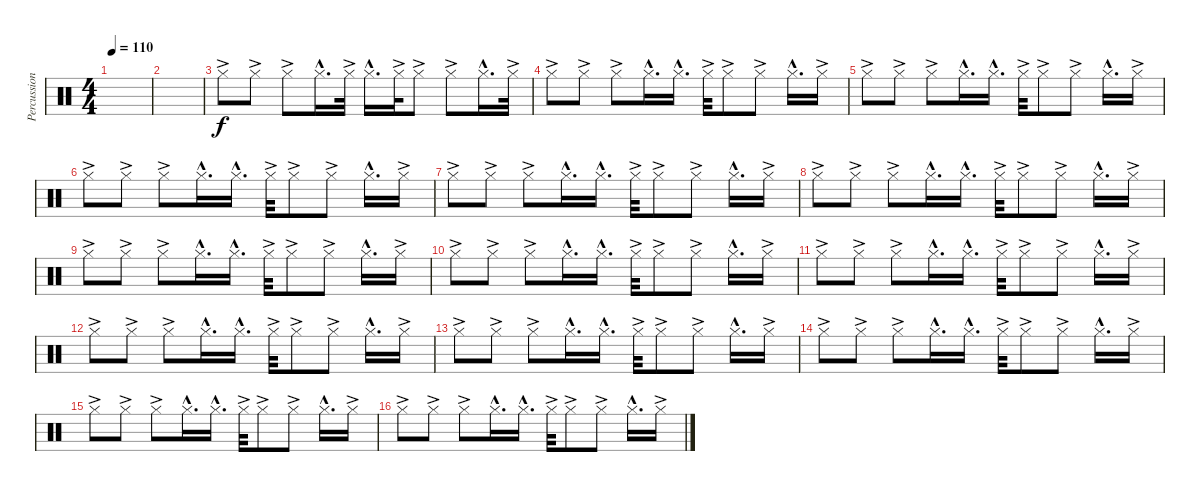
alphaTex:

\track ("Percussion" "Percussion") {instrument percussion}
\staff {score}
\articulation defaults
\ts (4 4)
\tempo 110
\clef neutral
\ks c
|
|
"Hi-Hat (closed)"{ac}.8 "Hi-Hat (closed)"{ac}.8 "Hi-Hat (closed)"{ac}.8 "Hi-Hat (closed)"{hac}.16{d} "Hi-Hat (closed)"{ac}.32 "Hi-Hat (closed)"{hac}.16{d} "Hi-Hat (closed)"{ac}.32 "Hi-Hat (closed)"{ac}.8 "Hi-Hat (closed)"{ac}.8 "Hi-Hat (closed)"{hac}.16{d} "Hi-Hat (closed)"{ac}.32 |
"Hi-Hat (closed)"{ac}.8 "Hi-Hat (closed)"{ac}.8 "Hi-Hat (closed)"{ac}.8 "Hi-Hat (closed)"{hac}.16{d} "Hi-Hat (closed)"{hac}.16{d} "Hi-Hat (closed)"{ac}.32 "Hi-Hat (closed)"{ac}.8 "Hi-Hat (closed)"{ac}.8 "Hi-Hat (closed)"{hac}.16{d} "Hi-Hat (closed)"{ac}.16 |
"Hi-Hat (closed)"{ac}.8 "Hi-Hat (closed)"{ac}.8 "Hi-Hat (closed)"{ac}.8 "Hi-Hat (closed)"{hac}.16{d} "Hi-Hat (closed)"{hac}.16{d} "Hi-Hat (closed)"{ac}.32 "Hi-Hat (closed)"{ac}.8 "Hi-Hat (closed)"{ac}.8 "Hi-Hat (closed)"{hac}.16{d} "Hi-Hat (closed)"{ac}.16 |
"Hi-Hat (closed)"{ac}.8 "Hi-Hat (closed)"{ac}.8 "Hi-Hat (closed)"{ac}.8 "Hi-Hat (closed)"{hac}.16{d} "Hi-Hat (closed)"{hac}.16{d} "Hi-Hat (closed)"{ac}.32 "Hi-Hat (closed)"{ac}.8 "Hi-Hat (closed)"{ac}.8 "Hi-Hat (closed)"{hac}.16{d} "Hi-Hat (closed)"{ac}.16 |
"Hi-Hat (closed)"{ac}.8 "Hi-Hat (closed)"{ac}.8 "Hi-Hat (closed)"{ac}.8 "Hi-Hat (closed)"{hac}.16{d} "Hi-Hat (closed)"{hac}.16{d} "Hi-Hat (closed)"{ac}.32 "Hi-Hat (closed)"{ac}.8 "Hi-Hat (closed)"{ac}.8 "Hi-Hat (closed)"{hac}.16{d} "Hi-Hat (closed)"{ac}.16 |
"Hi-Hat (closed)"{ac}.8 "Hi-Hat (closed)"{ac}.8 "Hi-Hat (closed)"{ac}.8 "Hi-Hat (closed)"{hac}.16{d} "Hi-Hat (closed)"{hac}.16{d} "Hi-Hat (closed)"{ac}.32 "Hi-Hat (closed)"{ac}.8 "Hi-Hat (closed)"{ac}.8 "Hi-Hat (closed)"{hac}.16{d} "Hi-Hat (closed)"{ac}.16 |
"Hi-Hat (closed)"{ac}.8 "Hi-Hat (closed)"{ac}.8 "Hi-Hat (closed)"{ac}.8 "Hi-Hat (closed)"{hac}.16{d} "Hi-Hat (closed)"{hac}.16{d} "Hi-Hat (closed)"{ac}.32 "Hi-Hat (closed)"{ac}.8 "Hi-Hat (closed)"{ac}.8 "Hi-Hat (closed)"{hac}.16{d} "Hi-Hat (closed)"{ac}.16 |
"Hi-Hat (closed)"{ac}.8 "Hi-Hat (closed)"{ac}.8 "Hi-Hat (closed)"{ac}.8 "Hi-Hat (closed)"{hac}.16{d} "Hi-Hat (closed)"{hac}.16{d} "Hi-Hat (closed)"{ac}.32 "Hi-Hat (closed)"{ac}.8 "Hi-Hat (closed)"{ac}.8 "Hi-Hat (closed)"{hac}.16{d} "Hi-Hat (closed)"{ac}.16 |
"Hi-Hat (closed)"{ac}.8 "Hi-Hat (closed)"{ac}.8 "Hi-Hat (closed)"{ac}.8 "Hi-Hat (closed)"{hac}.16{d} "Hi-Hat (closed)"{hac}.16{d} "Hi-Hat (closed)"{ac}.32 "Hi-Hat (closed)"{ac}.8 "Hi-Hat (closed)"{ac}.8 "Hi-Hat (closed)"{hac}.16{d} "Hi-Hat (closed)"{ac}.16 |
"Hi-Hat (closed)"{ac}.8 "Hi-Hat (closed)"{ac}.8 "Hi-Hat (closed)"{ac}.8 "Hi-Hat (closed)"{hac}.16{d} "Hi-Hat (closed)"{hac}.16{d} "Hi-Hat (closed)"{ac}.32 "Hi-Hat (closed)"{ac}.8 "Hi-Hat (closed)"{ac}.8 "Hi-Hat (closed)"{hac}.16{d} "Hi-Hat (closed)"{ac}.16 |
"Hi-Hat (closed)"{ac}.8 "Hi-Hat (closed)"{ac}.8 "Hi-Hat (closed)"{ac}.8 "Hi-Hat (closed)"{hac}.16{d} "Hi-Hat (closed)"{hac}.16{d} "Hi-Hat (closed)"{ac}.32 "Hi-Hat (closed)"{ac}.8 "Hi-Hat (closed)"{ac}.8 "Hi-Hat (closed)"{hac}.16{d} "Hi-Hat (closed)"{ac}.16 |
"Hi-Hat (closed)"{ac}.8 "Hi-Hat (closed)"{ac}.8 "Hi-Hat (closed)"{ac}.8 "Hi-Hat (closed)"{hac}.16{d} "Hi-Hat (closed)"{hac}.16{d} "Hi-Hat (closed)"{ac}.32 "Hi-Hat (closed)"{ac}.8 "Hi-Hat (closed)"{ac}.8 "Hi-Hat (closed)"{hac}.16{d} "Hi-Hat (closed)"{ac}.16 |
"Hi-Hat (closed)"{ac}.8 "Hi-Hat (closed)"{ac}.8 "Hi-Hat (closed)"{ac}.8 "Hi-Hat (closed)"{hac}.16{d} "Hi-Hat (closed)"{hac}.16{d} "Hi-Hat (closed)"{ac}.32 "Hi-Hat (closed)"{ac}.8 "Hi-Hat (closed)"{ac}.8 "Hi-Hat (closed)"{hac}.16{d} "Hi-Hat (closed)"{ac}.16 |
"Hi-Hat (closed)"{ac}.8 "Hi-Hat (closed)"{ac}.8 "Hi-Hat (closed)"{ac}.8 "Hi-Hat (closed)"{hac}.16{d} "Hi-Hat (closed)"{hac}.16{d} "Hi-Hat (closed)"{ac}.32 "Hi-Hat (closed)"{ac}.8 "Hi-Hat (closed)"{ac}.8 "Hi-Hat (closed)"{hac}.16{d} "Hi-Hat (closed)"{ac}.16
